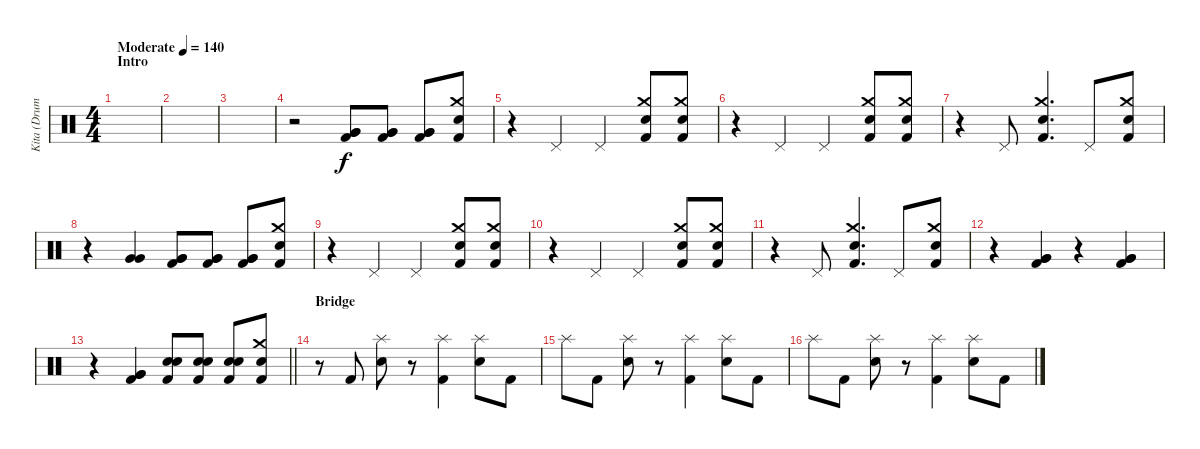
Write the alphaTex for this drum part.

\track ("Kita (Drums)" "Kita (Drum") {instrument percussion}
\staff {score}
\articulation defaults
\ts (4 4)
\section ("" "Intro")
\tempo (140 "Moderate")
\clef neutral
\ks c
|
|
|
r.2 ("Very Low Tom (hit)" "Very Low Tom (hit)" "Kick (hit) 2").8 ("Very Low Tom (hit)" "Very Low Tom (hit)" "Kick (hit) 2").8 ("Very Low Tom (hit)" "Very Low Tom (hit)" "Kick (hit) 2").8 ("Crash medium (hit)" "Snare (hit) 2" "Kick (hit) 2").8 |
r.4 "Pedal Hi-Hat (hit)".4 "Pedal Hi-Hat (hit)".4 ("Crash medium (hit)" "Snare (hit) 2" "Kick (hit) 2").8 ("Crash medium (hit)" "Snare (hit) 2" "Kick (hit) 2").8 |
r.4 "Pedal Hi-Hat (hit)".4 "Pedal Hi-Hat (hit)".4 ("Crash medium (hit)" "Snare (hit) 2" "Kick (hit) 2").8 ("Crash medium (hit)" "Snare (hit) 2" "Kick (hit) 2").8 |
r.4 "Pedal Hi-Hat (hit)".8 ("Crash medium (hit)" "Snare (hit) 2" "Kick (hit) 2").4{d} "Pedal Hi-Hat (hit)".8 ("Crash medium (hit)" "Snare (hit) 2" "Kick (hit) 2").8 |
r.4 ("Very Low Tom (hit)" "Very Low Tom (hit)").4 ("Very Low Tom (hit)" "Very Low Tom (hit)" "Kick (hit) 2").8 ("Very Low Tom (hit)" "Very Low Tom (hit)" "Kick (hit) 2").8 ("Very Low Tom (hit)" "Very Low Tom (hit)" "Kick (hit) 2").8 ("Crash medium (hit)" "Snare (hit) 2" "Kick (hit) 2").8 |
r.4 "Pedal Hi-Hat (hit)".4 "Pedal Hi-Hat (hit)".4 ("Crash medium (hit)" "Snare (hit) 2" "Kick (hit) 2").8 ("Crash medium (hit)" "Snare (hit) 2" "Kick (hit) 2").8 |
r.4 "Pedal Hi-Hat (hit)".4 "Pedal Hi-Hat (hit)".4 ("Crash medium (hit)" "Snare (hit) 2" "Kick (hit) 2").8 ("Crash medium (hit)" "Snare (hit) 2" "Kick (hit) 2").8 |
r.4 "Pedal Hi-Hat (hit)".8 ("Crash medium (hit)" "Snare (hit) 2" "Kick (hit) 2").4{d} "Pedal Hi-Hat (hit)".8 ("Crash medium (hit)" "Snare (hit) 2" "Kick (hit) 2").8 |
r.4 ("Very Low Tom (hit)" "Very Low Tom (hit)" "Kick (hit) 2").4 r.4 ("Very Low Tom (hit)" "Very Low Tom (hit)" "Kick (hit) 2").4 |
\barLineRight lightlight
r.4 ("Very Low Tom (hit)" "Very Low Tom (hit)" "Kick (hit) 2").4 ("Snare (hit) 2" "Snare (hit) 2" "Kick (hit) 2").8 ("Snare (hit) 2" "Snare (hit) 2" "Kick (hit) 2").8 ("Snare (hit) 2" "Snare (hit) 2" "Kick (hit) 2").8 ("Crash medium (hit)" "Snare (hit) 2" "Kick (hit) 2").8 |
\section ("" "Bridge")
r.8 "Kick (hit) 2".8 ("Splash (hit)" "Snare (hit) 2").8 r.8 ("Splash (hit)" "Kick (hit) 2").4 ("Splash (hit)" "Snare (hit) 2").8 "Kick (hit) 2".8 |
"Splash (hit)".8 "Kick (hit) 2".8 ("Splash (hit)" "Snare (hit) 2").8 r.8 ("Splash (hit)" "Kick (hit) 2").4 ("Splash (hit)" "Snare (hit) 2").8 "Kick (hit) 2".8 |
"Splash (hit)".8 "Kick (hit) 2".8 ("Splash (hit)" "Snare (hit) 2").8 r.8 ("Splash (hit)" "Kick (hit) 2").4 ("Splash (hit)" "Snare (hit) 2").8 "Kick (hit) 2".8
